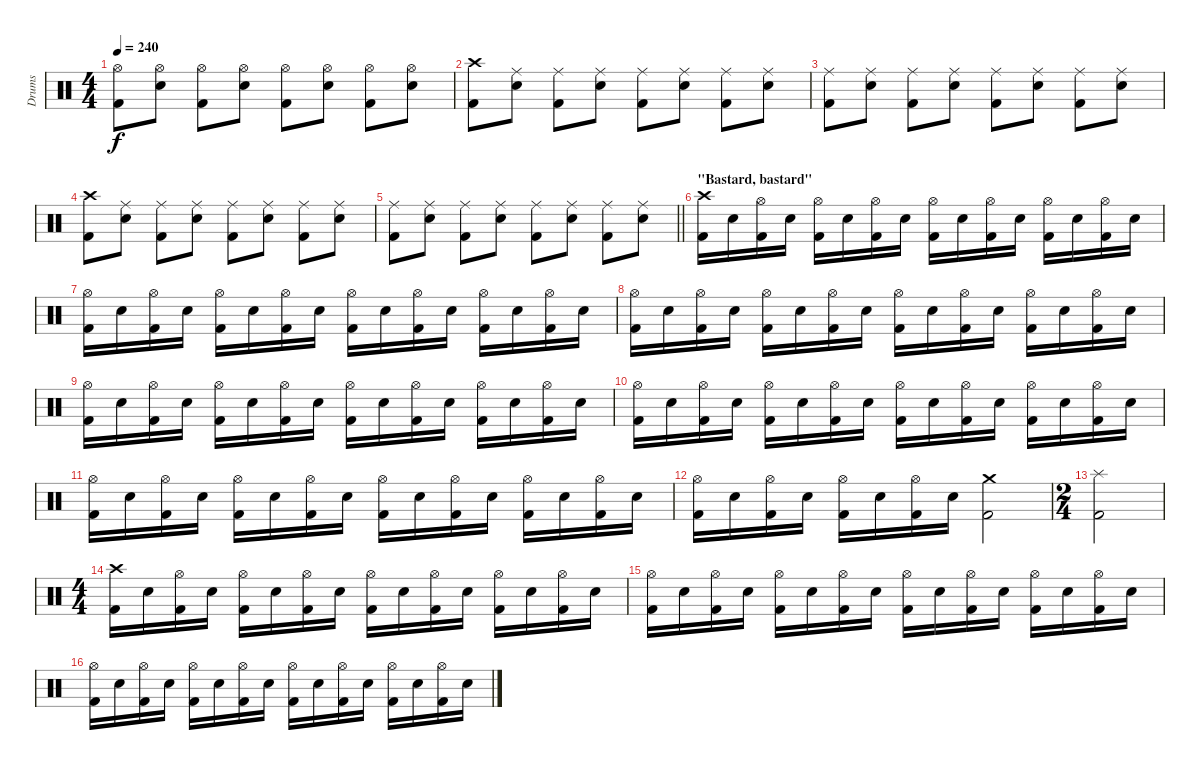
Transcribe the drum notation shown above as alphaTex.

\track ("Drums" "Drums") {instrument percussion}
\staff {score}
\articulation defaults
\ts (4 4)
\tempo 240
\clef neutral
\ks c
("Hi-Hat (open)" "Kick (hit) 2").8{dy f} ("Hi-Hat (open)" "Electric Snare (hit)").8 ("Hi-Hat (open)" "Kick (hit) 2").8 ("Hi-Hat (open)" "Electric Snare (hit)").8 ("Hi-Hat (open)" "Kick (hit) 2").8 ("Hi-Hat (open)" "Electric Snare (hit)").8 ("Hi-Hat (open)" "Kick (hit) 2").8 ("Hi-Hat (open)" "Electric Snare (hit)").8 |
("Crash high (hit)" "Kick (hit) 2").8 ("Ride (middle)" "Electric Snare (hit)").8 ("Ride (middle)" "Kick (hit) 2").8 ("Ride (middle)" "Electric Snare (hit)").8 ("Ride (middle)" "Kick (hit) 2").8 ("Ride (middle)" "Electric Snare (hit)").8 ("Ride (middle)" "Kick (hit) 2").8 ("Ride (middle)" "Electric Snare (hit)").8 |
("Ride (middle)" "Kick (hit) 2").8 ("Ride (middle)" "Electric Snare (hit)").8 ("Ride (middle)" "Kick (hit) 2").8 ("Ride (middle)" "Electric Snare (hit)").8 ("Ride (middle)" "Kick (hit) 2").8 ("Ride (middle)" "Electric Snare (hit)").8 ("Ride (middle)" "Kick (hit) 2").8 ("Ride (middle)" "Electric Snare (hit)").8 |
("Crash high (hit)" "Kick (hit) 2").8 ("Ride (middle)" "Electric Snare (hit)").8 ("Ride (middle)" "Kick (hit) 2").8 ("Ride (middle)" "Electric Snare (hit)").8 ("Ride (middle)" "Kick (hit) 2").8 ("Ride (middle)" "Electric Snare (hit)").8 ("Ride (middle)" "Kick (hit) 2").8 ("Ride (middle)" "Electric Snare (hit)").8 |
\barLineRight lightlight
("Ride (middle)" "Kick (hit) 2").8 ("Ride (middle)" "Electric Snare (hit)").8 ("Ride (middle)" "Kick (hit) 2").8 ("Ride (middle)" "Electric Snare (hit)").8 ("Ride (middle)" "Kick (hit) 2").8 ("Ride (middle)" "Electric Snare (hit)").8 ("Ride (middle)" "Kick (hit) 2").8 ("Ride (middle)" "Electric Snare (hit)").8 |
\section ("" "\"Bastard, bastard\"")
("Crash high (hit)" "Kick (hit) 2").16 "Electric Snare (hit)".16 ("Hi-Hat (open)" "Kick (hit) 2").16 "Electric Snare (hit)".16 ("Hi-Hat (open)" "Kick (hit) 2").16 "Electric Snare (hit)".16 ("Hi-Hat (open)" "Kick (hit) 2").16 "Electric Snare (hit)".16 ("Hi-Hat (open)" "Kick (hit) 2").16 "Electric Snare (hit)".16 ("Hi-Hat (open)" "Kick (hit) 2").16 "Electric Snare (hit)".16 ("Hi-Hat (open)" "Kick (hit) 2").16 "Electric Snare (hit)".16 ("Hi-Hat (open)" "Kick (hit) 2").16 "Electric Snare (hit)".16 |
("Hi-Hat (open)" "Kick (hit) 2").16 "Electric Snare (hit)".16 ("Hi-Hat (open)" "Kick (hit) 2").16 "Electric Snare (hit)".16 ("Hi-Hat (open)" "Kick (hit) 2").16 "Electric Snare (hit)".16 ("Hi-Hat (open)" "Kick (hit) 2").16 "Electric Snare (hit)".16 ("Hi-Hat (open)" "Kick (hit) 2").16 "Electric Snare (hit)".16 ("Hi-Hat (open)" "Kick (hit) 2").16 "Electric Snare (hit)".16 ("Hi-Hat (open)" "Kick (hit) 2").16 "Electric Snare (hit)".16 ("Hi-Hat (open)" "Kick (hit) 2").16 "Electric Snare (hit)".16 |
("Hi-Hat (open)" "Kick (hit) 2").16 "Electric Snare (hit)".16 ("Hi-Hat (open)" "Kick (hit) 2").16 "Electric Snare (hit)".16 ("Hi-Hat (open)" "Kick (hit) 2").16 "Electric Snare (hit)".16 ("Hi-Hat (open)" "Kick (hit) 2").16 "Electric Snare (hit)".16 ("Hi-Hat (open)" "Kick (hit) 2").16 "Electric Snare (hit)".16 ("Hi-Hat (open)" "Kick (hit) 2").16 "Electric Snare (hit)".16 ("Hi-Hat (open)" "Kick (hit) 2").16 "Electric Snare (hit)".16 ("Hi-Hat (open)" "Kick (hit) 2").16 "Electric Snare (hit)".16 |
("Hi-Hat (open)" "Kick (hit) 2").16 "Electric Snare (hit)".16 ("Hi-Hat (open)" "Kick (hit) 2").16 "Electric Snare (hit)".16 ("Hi-Hat (open)" "Kick (hit) 2").16 "Electric Snare (hit)".16 ("Hi-Hat (open)" "Kick (hit) 2").16 "Electric Snare (hit)".16 ("Hi-Hat (open)" "Kick (hit) 2").16 "Electric Snare (hit)".16 ("Hi-Hat (open)" "Kick (hit) 2").16 "Electric Snare (hit)".16 ("Hi-Hat (open)" "Kick (hit) 2").16 "Electric Snare (hit)".16 ("Hi-Hat (open)" "Kick (hit) 2").16 "Electric Snare (hit)".16 |
("Hi-Hat (open)" "Kick (hit) 2").16 "Electric Snare (hit)".16 ("Hi-Hat (open)" "Kick (hit) 2").16 "Electric Snare (hit)".16 ("Hi-Hat (open)" "Kick (hit) 2").16 "Electric Snare (hit)".16 ("Hi-Hat (open)" "Kick (hit) 2").16 "Electric Snare (hit)".16 ("Hi-Hat (open)" "Kick (hit) 2").16 "Electric Snare (hit)".16 ("Hi-Hat (open)" "Kick (hit) 2").16 "Electric Snare (hit)".16 ("Hi-Hat (open)" "Kick (hit) 2").16 "Electric Snare (hit)".16 ("Hi-Hat (open)" "Kick (hit) 2").16 "Electric Snare (hit)".16 |
("Hi-Hat (open)" "Kick (hit) 2").16 "Electric Snare (hit)".16 ("Hi-Hat (open)" "Kick (hit) 2").16 "Electric Snare (hit)".16 ("Hi-Hat (open)" "Kick (hit) 2").16 "Electric Snare (hit)".16 ("Hi-Hat (open)" "Kick (hit) 2").16 "Electric Snare (hit)".16 ("Hi-Hat (open)" "Kick (hit) 2").16 "Electric Snare (hit)".16 ("Hi-Hat (open)" "Kick (hit) 2").16 "Electric Snare (hit)".16 ("Hi-Hat (open)" "Kick (hit) 2").16 "Electric Snare (hit)".16 ("Hi-Hat (open)" "Kick (hit) 2").16 "Electric Snare (hit)".16 |
("Hi-Hat (open)" "Kick (hit) 2").16 "Electric Snare (hit)".16 ("Hi-Hat (open)" "Kick (hit) 2").16 "Electric Snare (hit)".16 ("Hi-Hat (open)" "Kick (hit) 2").16 "Electric Snare (hit)".16 ("Hi-Hat (open)" "Kick (hit) 2").16 "Electric Snare (hit)".16 ("Crash medium (hit)" "Kick (hit) 2").2 |
\ts (2 4)
("Splash (hit)" "Kick (hit) 2").2 |
\ts (4 4)
("Crash high (hit)" "Kick (hit) 2").16 "Electric Snare (hit)".16 ("Hi-Hat (open)" "Kick (hit) 2").16 "Electric Snare (hit)".16 ("Hi-Hat (open)" "Kick (hit) 2").16 "Electric Snare (hit)".16 ("Hi-Hat (open)" "Kick (hit) 2").16 "Electric Snare (hit)".16 ("Hi-Hat (open)" "Kick (hit) 2").16 "Electric Snare (hit)".16 ("Hi-Hat (open)" "Kick (hit) 2").16 "Electric Snare (hit)".16 ("Hi-Hat (open)" "Kick (hit) 2").16 "Electric Snare (hit)".16 ("Hi-Hat (open)" "Kick (hit) 2").16 "Electric Snare (hit)".16 |
("Hi-Hat (open)" "Kick (hit) 2").16 "Electric Snare (hit)".16 ("Hi-Hat (open)" "Kick (hit) 2").16 "Electric Snare (hit)".16 ("Hi-Hat (open)" "Kick (hit) 2").16 "Electric Snare (hit)".16 ("Hi-Hat (open)" "Kick (hit) 2").16 "Electric Snare (hit)".16 ("Hi-Hat (open)" "Kick (hit) 2").16 "Electric Snare (hit)".16 ("Hi-Hat (open)" "Kick (hit) 2").16 "Electric Snare (hit)".16 ("Hi-Hat (open)" "Kick (hit) 2").16 "Electric Snare (hit)".16 ("Hi-Hat (open)" "Kick (hit) 2").16 "Electric Snare (hit)".16 |
("Hi-Hat (open)" "Kick (hit) 2").16 "Electric Snare (hit)".16 ("Hi-Hat (open)" "Kick (hit) 2").16 "Electric Snare (hit)".16 ("Hi-Hat (open)" "Kick (hit) 2").16 "Electric Snare (hit)".16 ("Hi-Hat (open)" "Kick (hit) 2").16 "Electric Snare (hit)".16 ("Hi-Hat (open)" "Kick (hit) 2").16 "Electric Snare (hit)".16 ("Hi-Hat (open)" "Kick (hit) 2").16 "Electric Snare (hit)".16 ("Hi-Hat (open)" "Kick (hit) 2").16 "Electric Snare (hit)".16 ("Hi-Hat (open)" "Kick (hit) 2").16 "Electric Snare (hit)".16
